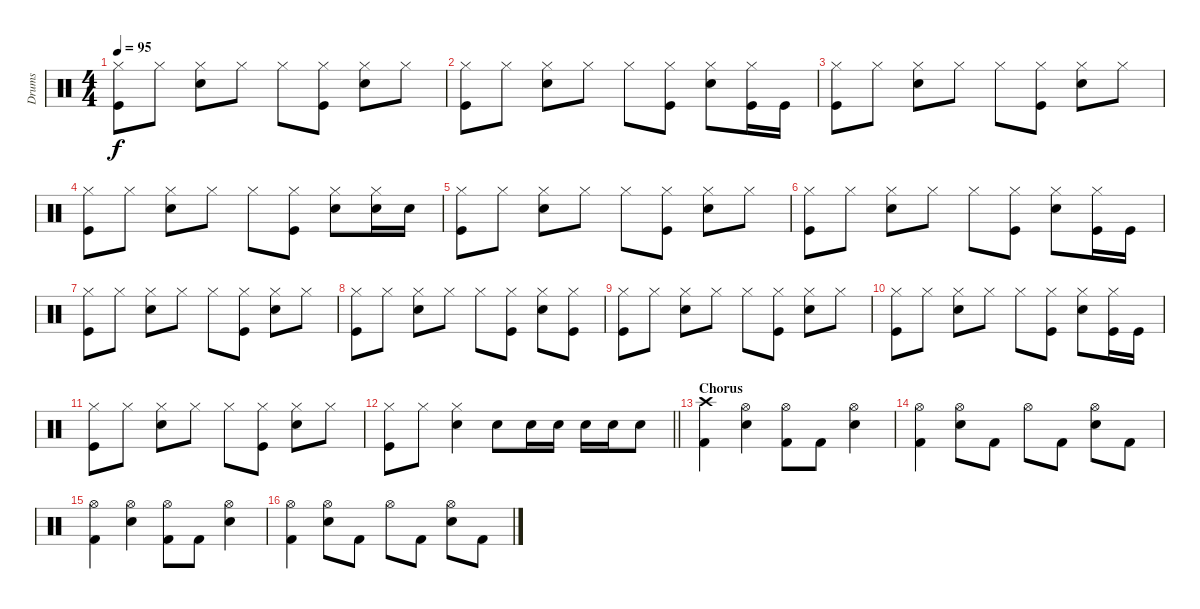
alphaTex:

\track ("Drums" "Drums") {instrument percussion}
\staff {score}
\articulation defaults
\ts (4 4)
\tempo 95
\clef neutral
\ks c
("Hi-Hat (closed)" "Kick (hit)").8{dy f} "Hi-Hat (closed)".8 ("Hi-Hat (closed)" "Electric Snare (hit)").8 "Hi-Hat (closed)".8 "Hi-Hat (closed)".8 ("Hi-Hat (closed)" "Kick (hit)").8 ("Hi-Hat (closed)" "Electric Snare (hit)").8 "Hi-Hat (closed)".8 |
("Hi-Hat (closed)" "Kick (hit)").8 "Hi-Hat (closed)".8 ("Hi-Hat (closed)" "Electric Snare (hit)").8 "Hi-Hat (closed)".8 "Hi-Hat (closed)".8 ("Hi-Hat (closed)" "Kick (hit)").8 ("Hi-Hat (closed)" "Electric Snare (hit)").8 ("Hi-Hat (closed)" "Kick (hit)").16 "Kick (hit)".16 |
("Hi-Hat (closed)" "Kick (hit)").8 "Hi-Hat (closed)".8 ("Hi-Hat (closed)" "Electric Snare (hit)").8 "Hi-Hat (closed)".8 "Hi-Hat (closed)".8 ("Hi-Hat (closed)" "Kick (hit)").8 ("Hi-Hat (closed)" "Electric Snare (hit)").8 "Hi-Hat (closed)".8 |
("Hi-Hat (closed)" "Kick (hit)").8 "Hi-Hat (closed)".8 ("Hi-Hat (closed)" "Electric Snare (hit)").8 "Hi-Hat (closed)".8 "Hi-Hat (closed)".8 ("Hi-Hat (closed)" "Kick (hit)").8 ("Hi-Hat (closed)" "Electric Snare (hit)").8 ("Hi-Hat (closed)" "Electric Snare (hit)").16 "Electric Snare (hit)".16 |
("Hi-Hat (closed)" "Kick (hit)").8 "Hi-Hat (closed)".8 ("Hi-Hat (closed)" "Electric Snare (hit)").8 "Hi-Hat (closed)".8 "Hi-Hat (closed)".8 ("Hi-Hat (closed)" "Kick (hit)").8 ("Hi-Hat (closed)" "Electric Snare (hit)").8 "Hi-Hat (closed)".8 |
("Hi-Hat (closed)" "Kick (hit)").8 "Hi-Hat (closed)".8 ("Hi-Hat (closed)" "Electric Snare (hit)").8 "Hi-Hat (closed)".8 "Hi-Hat (closed)".8 ("Hi-Hat (closed)" "Kick (hit)").8 ("Hi-Hat (closed)" "Electric Snare (hit)").8 ("Hi-Hat (closed)" "Kick (hit)").16 "Kick (hit)".16 |
("Hi-Hat (closed)" "Kick (hit)").8 "Hi-Hat (closed)".8 ("Hi-Hat (closed)" "Electric Snare (hit)").8 "Hi-Hat (closed)".8 "Hi-Hat (closed)".8 ("Hi-Hat (closed)" "Kick (hit)").8 ("Hi-Hat (closed)" "Electric Snare (hit)").8 "Hi-Hat (closed)".8 |
("Hi-Hat (closed)" "Kick (hit)").8 "Hi-Hat (closed)".8 ("Hi-Hat (closed)" "Electric Snare (hit)").8 "Hi-Hat (closed)".8 "Hi-Hat (closed)".8 ("Hi-Hat (closed)" "Kick (hit)").8 ("Hi-Hat (closed)" "Electric Snare (hit)").8 ("Hi-Hat (closed)" "Kick (hit)").8 |
("Hi-Hat (closed)" "Kick (hit)").8 "Hi-Hat (closed)".8 ("Hi-Hat (closed)" "Electric Snare (hit)").8 "Hi-Hat (closed)".8 "Hi-Hat (closed)".8 ("Hi-Hat (closed)" "Kick (hit)").8 ("Hi-Hat (closed)" "Electric Snare (hit)").8 "Hi-Hat (closed)".8 |
("Hi-Hat (closed)" "Kick (hit)").8 "Hi-Hat (closed)".8 ("Hi-Hat (closed)" "Electric Snare (hit)").8 "Hi-Hat (closed)".8 "Hi-Hat (closed)".8 ("Hi-Hat (closed)" "Kick (hit)").8 ("Hi-Hat (closed)" "Electric Snare (hit)").8 ("Hi-Hat (closed)" "Kick (hit)").16 "Kick (hit)".16 |
("Hi-Hat (closed)" "Kick (hit)").8 "Hi-Hat (closed)".8 ("Hi-Hat (closed)" "Electric Snare (hit)").8 "Hi-Hat (closed)".8 "Hi-Hat (closed)".8 ("Hi-Hat (closed)" "Kick (hit)").8 ("Hi-Hat (closed)" "Electric Snare (hit)").8 "Hi-Hat (closed)".8 |
\barLineRight lightlight
("Hi-Hat (closed)" "Kick (hit)").8 "Hi-Hat (closed)".8 ("Hi-Hat (closed)" "Electric Snare (hit)").4 "Electric Snare (hit)".8 "Electric Snare (hit)".16 "Electric Snare (hit)".16 "Electric Snare (hit)".16 "Electric Snare (hit)".16 "Electric Snare (hit)".8 |
\section ("" "Chorus ")
("Crash high (hit)" "Kick (hit) 2").4 ("Hi-Hat (open)" "Electric Snare (hit)").4 ("Hi-Hat (open)" "Kick (hit) 2").8 "Kick (hit) 2".8 ("Hi-Hat (open)" "Electric Snare (hit)").4 |
("Hi-Hat (open)" "Kick (hit) 2").4 ("Hi-Hat (open)" "Electric Snare (hit)").8 "Kick (hit) 2".8 "Hi-Hat (open)".8 "Kick (hit) 2".8 ("Hi-Hat (open)" "Electric Snare (hit)").8 "Kick (hit) 2".8 |
("Hi-Hat (open)" "Kick (hit) 2").4 ("Hi-Hat (open)" "Electric Snare (hit)").4 ("Hi-Hat (open)" "Kick (hit) 2").8 "Kick (hit) 2".8 ("Hi-Hat (open)" "Electric Snare (hit)").4 |
("Hi-Hat (open)" "Kick (hit) 2").4 ("Hi-Hat (open)" "Electric Snare (hit)").8 "Kick (hit) 2".8 "Hi-Hat (open)".8 "Kick (hit) 2".8 ("Hi-Hat (open)" "Electric Snare (hit)").8 "Kick (hit) 2".8
